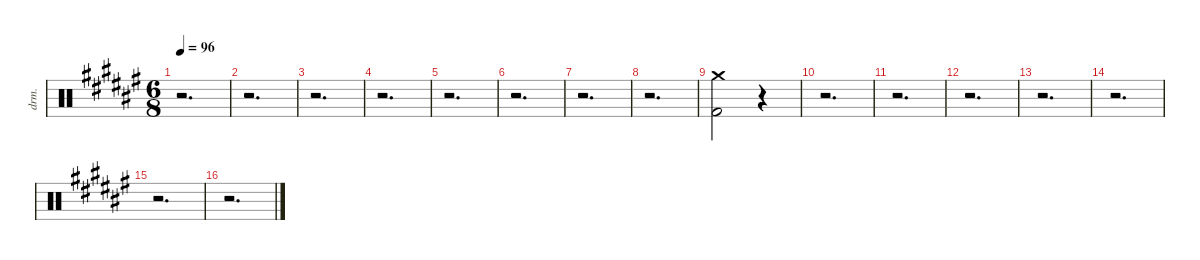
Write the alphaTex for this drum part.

\defaultSystemsLayout 4
\hideDynamics
\bracketExtendMode nobrackets
\otherSystemsTrackNameOrientation horizontal
\track ("Drumkit" "drm.") {instrument percussion}
\staff {score}
\articulation defaults
\ts (6 8)
\tempo 96
\clef neutral
\ks f#
r.2{d dy mf beam Down} |
r.2{d beam Down} |
r.2{d beam Down} |
r.2{d beam Down} |
r.2{d beam Down} |
r.2{d beam Down} |
r.2{d beam Down} |
r.2{d beam Down} |
("Kick (hit) 2"{acc forcenatural} "Crash medium (hit)"{acc forcenatural}).2{beam Down} r.4{beam Down} |
r.2{d beam Down} |
r.2{d beam Down} |
r.2{d beam Down} |
r.2{d beam Down} |
r.2{d beam Down} |
r.2{d beam Down} |
r.2{d beam Down}
